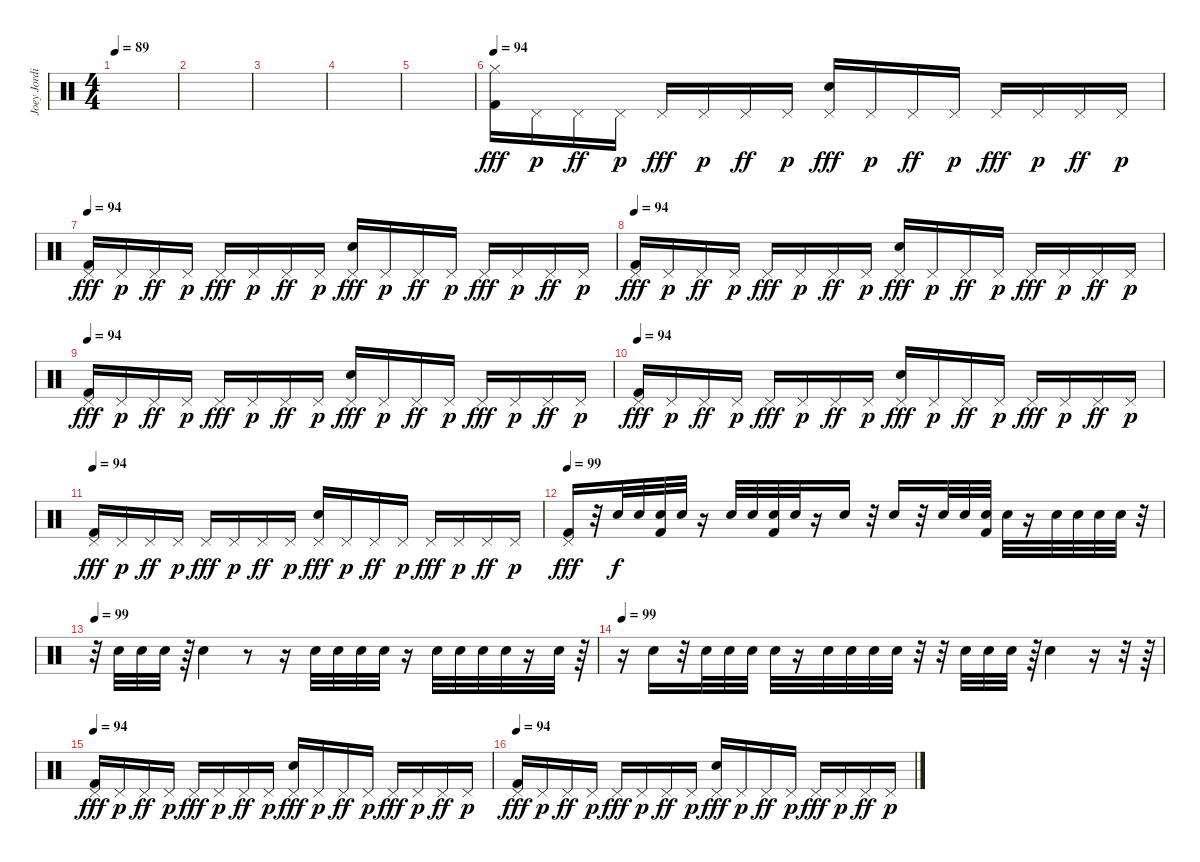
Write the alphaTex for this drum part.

\track ("Joey Jordison" "Joey Jordi") {instrument percussion}
\staff {score}
\articulation defaults
\ts (4 4)
\tempo 89
\clef neutral
\ks c
|
|
|
|
|
\tempo 94
("Hi-Hat (closed)" "Kick (hit) 2").16{dy fff} "Pedal Hi-Hat (hit)".16{dy p} "Pedal Hi-Hat (hit)".16{dy ff} "Pedal Hi-Hat (hit)".16{dy p} "Pedal Hi-Hat (hit)".16{dy fff} "Pedal Hi-Hat (hit)".16{dy p} "Pedal Hi-Hat (hit)".16{dy ff} "Pedal Hi-Hat (hit)".16{dy p} ("Pedal Hi-Hat (hit)" "Snare (hit) 2").16{dy fff} "Pedal Hi-Hat (hit)".16{dy p} "Pedal Hi-Hat (hit)".16{dy ff} "Pedal Hi-Hat (hit)".16{dy p} "Pedal Hi-Hat (hit)".16{dy fff} "Pedal Hi-Hat (hit)".16{dy p} "Pedal Hi-Hat (hit)".16{dy ff} "Pedal Hi-Hat (hit)".16{dy p} |
\tempo 94
("Pedal Hi-Hat (hit)" "Kick (hit) 2").16{dy fff} "Pedal Hi-Hat (hit)".16{dy p} "Pedal Hi-Hat (hit)".16{dy ff} "Pedal Hi-Hat (hit)".16{dy p} "Pedal Hi-Hat (hit)".16{dy fff} "Pedal Hi-Hat (hit)".16{dy p} "Pedal Hi-Hat (hit)".16{dy ff} "Pedal Hi-Hat (hit)".16{dy p} ("Pedal Hi-Hat (hit)" "Snare (hit) 2").16{dy fff} "Pedal Hi-Hat (hit)".16{dy p} "Pedal Hi-Hat (hit)".16{dy ff} "Pedal Hi-Hat (hit)".16{dy p} "Pedal Hi-Hat (hit)".16{dy fff} "Pedal Hi-Hat (hit)".16{dy p} "Pedal Hi-Hat (hit)".16{dy ff} "Pedal Hi-Hat (hit)".16{dy p} |
\tempo 94
("Pedal Hi-Hat (hit)" "Kick (hit) 2").16{dy fff} "Pedal Hi-Hat (hit)".16{dy p} "Pedal Hi-Hat (hit)".16{dy ff} "Pedal Hi-Hat (hit)".16{dy p} "Pedal Hi-Hat (hit)".16{dy fff} "Pedal Hi-Hat (hit)".16{dy p} "Pedal Hi-Hat (hit)".16{dy ff} "Pedal Hi-Hat (hit)".16{dy p} ("Pedal Hi-Hat (hit)" "Snare (hit) 2").16{dy fff} "Pedal Hi-Hat (hit)".16{dy p} "Pedal Hi-Hat (hit)".16{dy ff} "Pedal Hi-Hat (hit)".16{dy p} "Pedal Hi-Hat (hit)".16{dy fff} "Pedal Hi-Hat (hit)".16{dy p} "Pedal Hi-Hat (hit)".16{dy ff} "Pedal Hi-Hat (hit)".16{dy p} |
\tempo 94
("Pedal Hi-Hat (hit)" "Kick (hit) 2").16{dy fff} "Pedal Hi-Hat (hit)".16{dy p} "Pedal Hi-Hat (hit)".16{dy ff} "Pedal Hi-Hat (hit)".16{dy p} "Pedal Hi-Hat (hit)".16{dy fff} "Pedal Hi-Hat (hit)".16{dy p} "Pedal Hi-Hat (hit)".16{dy ff} "Pedal Hi-Hat (hit)".16{dy p} ("Pedal Hi-Hat (hit)" "Snare (hit) 2").16{dy fff} "Pedal Hi-Hat (hit)".16{dy p} "Pedal Hi-Hat (hit)".16{dy ff} "Pedal Hi-Hat (hit)".16{dy p} "Pedal Hi-Hat (hit)".16{dy fff} "Pedal Hi-Hat (hit)".16{dy p} "Pedal Hi-Hat (hit)".16{dy ff} "Pedal Hi-Hat (hit)".16{dy p} |
\tempo 94
("Pedal Hi-Hat (hit)" "Kick (hit) 2").16{dy fff} "Pedal Hi-Hat (hit)".16{dy p} "Pedal Hi-Hat (hit)".16{dy ff} "Pedal Hi-Hat (hit)".16{dy p} "Pedal Hi-Hat (hit)".16{dy fff} "Pedal Hi-Hat (hit)".16{dy p} "Pedal Hi-Hat (hit)".16{dy ff} "Pedal Hi-Hat (hit)".16{dy p} ("Pedal Hi-Hat (hit)" "Snare (hit) 2").16{dy fff} "Pedal Hi-Hat (hit)".16{dy p} "Pedal Hi-Hat (hit)".16{dy ff} "Pedal Hi-Hat (hit)".16{dy p} "Pedal Hi-Hat (hit)".16{dy fff} "Pedal Hi-Hat (hit)".16{dy p} "Pedal Hi-Hat (hit)".16{dy ff} "Pedal Hi-Hat (hit)".16{dy p} |
\tempo 94
("Pedal Hi-Hat (hit)" "Kick (hit) 2").16{dy fff} "Pedal Hi-Hat (hit)".16{dy p} "Pedal Hi-Hat (hit)".16{dy ff} "Pedal Hi-Hat (hit)".16{dy p} "Pedal Hi-Hat (hit)".16{dy fff} "Pedal Hi-Hat (hit)".16{dy p} "Pedal Hi-Hat (hit)".16{dy ff} "Pedal Hi-Hat (hit)".16{dy p} ("Pedal Hi-Hat (hit)" "Snare (hit) 2").16{dy fff} "Pedal Hi-Hat (hit)".16{dy p} "Pedal Hi-Hat (hit)".16{dy ff} "Pedal Hi-Hat (hit)".16{dy p} "Pedal Hi-Hat (hit)".16{dy fff} "Pedal Hi-Hat (hit)".16{dy p} "Pedal Hi-Hat (hit)".16{dy ff} "Pedal Hi-Hat (hit)".16{dy p} |
\tempo 99
("Pedal Hi-Hat (hit)" "Kick (hit) 2").16{dy fff} r.32 "Snare (hit) 2".32{dy f} "Snare (hit) 2".32 ("Snare (hit) 2" "Kick (hit) 2").32 "Snare (hit) 2".32 r.16 "Snare (hit) 2".32 "Snare (hit) 2".32 ("Snare (hit) 2" "Kick (hit) 2").32 "Snare (hit) 2".32 r.16 "Snare (hit) 2".16 r.32 "Snare (hit) 2".16 r.32 "Snare (hit) 2".32 "Snare (hit) 2".32 ("Snare (hit) 2" "Kick (hit) 2").32 "Snare (hit) 2".32 r.16 "Snare (hit) 2".32 "Snare (hit) 2".32 "Snare (hit) 2".32 "Snare (hit) 2".32 r.32 |
\tempo 99
r.32 "Snare (hit) 2".32 "Snare (hit) 2".32 "Snare (hit) 2".32 r.64 "Snare (hit) 2".4 r.8 r.16 "Snare (hit) 2".32 "Snare (hit) 2".32 "Snare (hit) 2".32 "Snare (hit) 2".32 r.16 "Snare (hit) 2".32 "Snare (hit) 2".32 "Snare (hit) 2".32 "Snare (hit) 2".32 r.16 "Snare (hit) 2".32 r.64 |
\tempo 99
r.16 "Snare (hit) 2".16 r.32 "Snare (hit) 2".32 "Snare (hit) 2".32 "Snare (hit) 2".32 "Snare (hit) 2".32 r.16 "Snare (hit) 2".32 "Snare (hit) 2".32 "Snare (hit) 2".32 "Snare (hit) 2".32 r.32 r.32 "Snare (hit) 2".32 "Snare (hit) 2".32 "Snare (hit) 2".32 r.64 "Snare (hit) 2".4 r.16 r.32 r.64 |
\tempo 94
("Pedal Hi-Hat (hit)" "Kick (hit) 2").16{dy fff} "Pedal Hi-Hat (hit)".16{dy p} "Pedal Hi-Hat (hit)".16{dy ff} "Pedal Hi-Hat (hit)".16{dy p} "Pedal Hi-Hat (hit)".16{dy fff} "Pedal Hi-Hat (hit)".16{dy p} "Pedal Hi-Hat (hit)".16{dy ff} "Pedal Hi-Hat (hit)".16{dy p} ("Pedal Hi-Hat (hit)" "Snare (hit) 2").16{dy fff} "Pedal Hi-Hat (hit)".16{dy p} "Pedal Hi-Hat (hit)".16{dy ff} "Pedal Hi-Hat (hit)".16{dy p} "Pedal Hi-Hat (hit)".16{dy fff} "Pedal Hi-Hat (hit)".16{dy p} "Pedal Hi-Hat (hit)".16{dy ff} "Pedal Hi-Hat (hit)".16{dy p} |
\tempo 94
("Pedal Hi-Hat (hit)" "Kick (hit) 2").16{dy fff} "Pedal Hi-Hat (hit)".16{dy p} "Pedal Hi-Hat (hit)".16{dy ff} "Pedal Hi-Hat (hit)".16{dy p} "Pedal Hi-Hat (hit)".16{dy fff} "Pedal Hi-Hat (hit)".16{dy p} "Pedal Hi-Hat (hit)".16{dy ff} "Pedal Hi-Hat (hit)".16{dy p} ("Pedal Hi-Hat (hit)" "Snare (hit) 2").16{dy fff} "Pedal Hi-Hat (hit)".16{dy p} "Pedal Hi-Hat (hit)".16{dy ff} "Pedal Hi-Hat (hit)".16{dy p} "Pedal Hi-Hat (hit)".16{dy fff} "Pedal Hi-Hat (hit)".16{dy p} "Pedal Hi-Hat (hit)".16{dy ff} "Pedal Hi-Hat (hit)".16{dy p}
